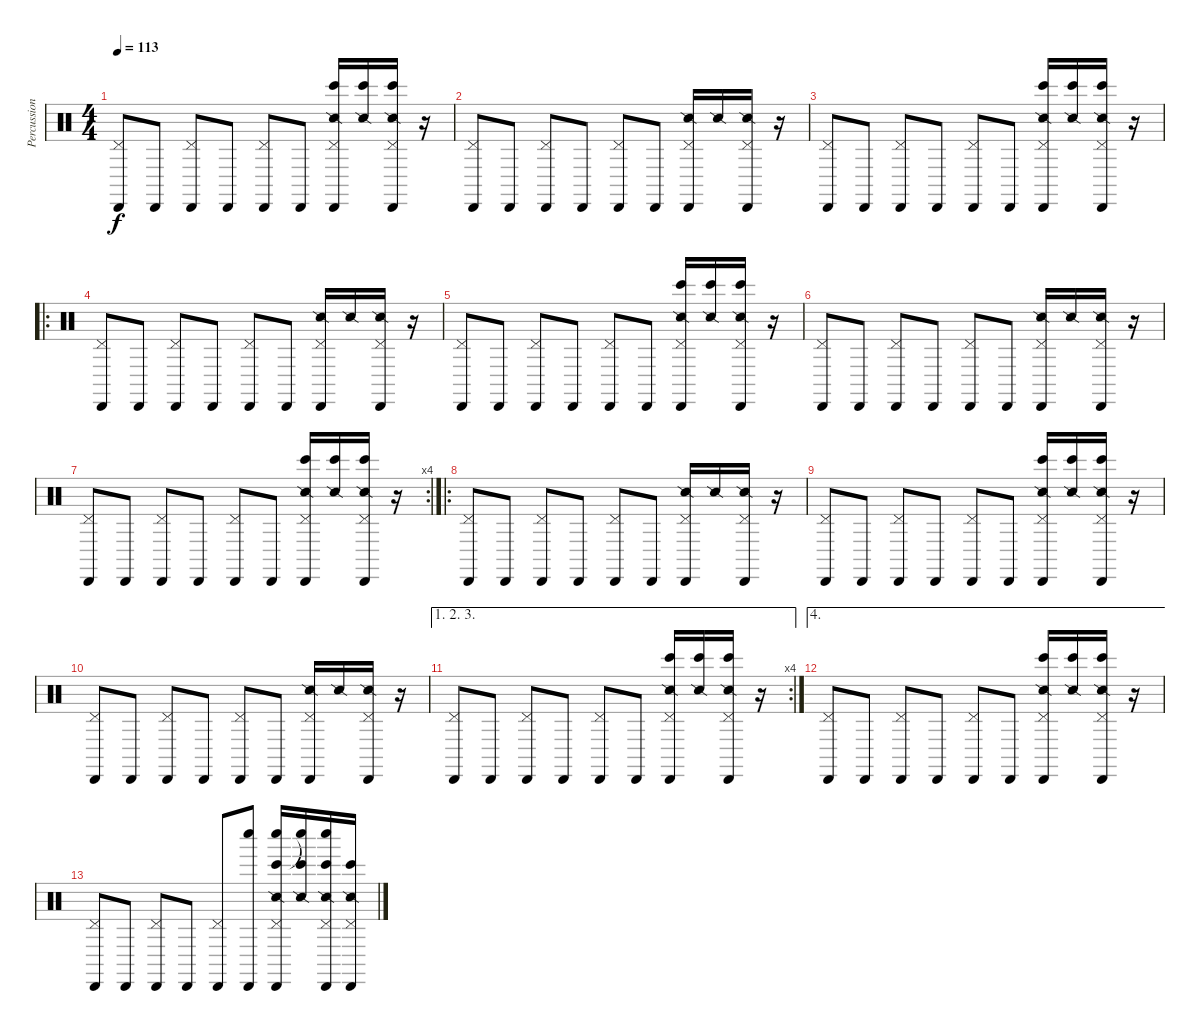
\track ("Percussion" "Percussion") {instrument percussion}
\staff {score}
\articulation defaults
\ts (4 4)
\tempo 113
\clef neutral
\ks c
("Cabasa (hit)" "Pedal Hi-Hat (hit)").8{dy f} "Cabasa (hit)".8 ("Cabasa (hit)" "Pedal Hi-Hat (hit)").8 "Cabasa (hit)".8 ("Cabasa (hit)" "Pedal Hi-Hat (hit)").8 "Cabasa (hit)".8 ("Cabasa (hit)" "Snare (side stick) 2" "Bongo High (hit)" "Pedal Hi-Hat (hit)").16 ("Snare (side stick) 2" "Bongo High (hit)").16 ("Cabasa (hit)" "Snare (side stick) 2" "Bongo High (hit)" "Pedal Hi-Hat (hit)").16 r.16 |
("Cabasa (hit)" "Pedal Hi-Hat (hit)").8 "Cabasa (hit)".8 ("Cabasa (hit)" "Pedal Hi-Hat (hit)").8 "Cabasa (hit)".8 ("Cabasa (hit)" "Pedal Hi-Hat (hit)").8 "Cabasa (hit)".8 ("Cabasa (hit)" "Snare (side stick) 2" "Pedal Hi-Hat (hit)").16 "Snare (side stick) 2".16 ("Cabasa (hit)" "Snare (side stick) 2" "Pedal Hi-Hat (hit)").16 r.16 |
("Cabasa (hit)" "Pedal Hi-Hat (hit)").8 "Cabasa (hit)".8 ("Cabasa (hit)" "Pedal Hi-Hat (hit)").8 "Cabasa (hit)".8 ("Cabasa (hit)" "Pedal Hi-Hat (hit)").8 "Cabasa (hit)".8 ("Cabasa (hit)" "Snare (side stick) 2" "Bongo High (hit)" "Pedal Hi-Hat (hit)").16 ("Snare (side stick) 2" "Bongo High (hit)").16 ("Cabasa (hit)" "Snare (side stick) 2" "Bongo High (hit)" "Pedal Hi-Hat (hit)").16 r.16 |
\ro
("Cabasa (hit)" "Pedal Hi-Hat (hit)").8 "Cabasa (hit)".8 ("Cabasa (hit)" "Pedal Hi-Hat (hit)").8 "Cabasa (hit)".8 ("Cabasa (hit)" "Pedal Hi-Hat (hit)").8 "Cabasa (hit)".8 ("Cabasa (hit)" "Snare (side stick) 2" "Pedal Hi-Hat (hit)").16 "Snare (side stick) 2".16 ("Cabasa (hit)" "Snare (side stick) 2" "Pedal Hi-Hat (hit)").16 r.16 |
("Cabasa (hit)" "Pedal Hi-Hat (hit)").8 "Cabasa (hit)".8 ("Cabasa (hit)" "Pedal Hi-Hat (hit)").8 "Cabasa (hit)".8 ("Cabasa (hit)" "Pedal Hi-Hat (hit)").8 "Cabasa (hit)".8 ("Cabasa (hit)" "Snare (side stick) 2" "Bongo High (hit)" "Pedal Hi-Hat (hit)").16 ("Snare (side stick) 2" "Bongo High (hit)").16 ("Cabasa (hit)" "Snare (side stick) 2" "Bongo High (hit)" "Pedal Hi-Hat (hit)").16 r.16 |
("Cabasa (hit)" "Pedal Hi-Hat (hit)").8 "Cabasa (hit)".8 ("Cabasa (hit)" "Pedal Hi-Hat (hit)").8 "Cabasa (hit)".8 ("Cabasa (hit)" "Pedal Hi-Hat (hit)").8 "Cabasa (hit)".8 ("Cabasa (hit)" "Snare (side stick) 2" "Pedal Hi-Hat (hit)").16 "Snare (side stick) 2".16 ("Cabasa (hit)" "Snare (side stick) 2" "Pedal Hi-Hat (hit)").16 r.16 |
\rc 4
("Cabasa (hit)" "Pedal Hi-Hat (hit)").8 "Cabasa (hit)".8 ("Cabasa (hit)" "Pedal Hi-Hat (hit)").8 "Cabasa (hit)".8 ("Cabasa (hit)" "Pedal Hi-Hat (hit)").8 "Cabasa (hit)".8 ("Cabasa (hit)" "Snare (side stick) 2" "Bongo High (hit)" "Pedal Hi-Hat (hit)").16 ("Snare (side stick) 2" "Bongo High (hit)").16 ("Cabasa (hit)" "Snare (side stick) 2" "Bongo High (hit)" "Pedal Hi-Hat (hit)").16 r.16 |
\ro
("Cabasa (hit)" "Pedal Hi-Hat (hit)").8 "Cabasa (hit)".8 ("Cabasa (hit)" "Pedal Hi-Hat (hit)").8 "Cabasa (hit)".8 ("Cabasa (hit)" "Pedal Hi-Hat (hit)").8 "Cabasa (hit)".8 ("Cabasa (hit)" "Snare (side stick) 2" "Pedal Hi-Hat (hit)").16 "Snare (side stick) 2".16 ("Cabasa (hit)" "Snare (side stick) 2" "Pedal Hi-Hat (hit)").16 r.16 |
("Cabasa (hit)" "Pedal Hi-Hat (hit)").8 "Cabasa (hit)".8 ("Cabasa (hit)" "Pedal Hi-Hat (hit)").8 "Cabasa (hit)".8 ("Cabasa (hit)" "Pedal Hi-Hat (hit)").8 "Cabasa (hit)".8 ("Cabasa (hit)" "Snare (side stick) 2" "Bongo High (hit)" "Pedal Hi-Hat (hit)").16 ("Snare (side stick) 2" "Bongo High (hit)").16 ("Cabasa (hit)" "Snare (side stick) 2" "Bongo High (hit)" "Pedal Hi-Hat (hit)").16 r.16 |
("Cabasa (hit)" "Pedal Hi-Hat (hit)").8 "Cabasa (hit)".8 ("Cabasa (hit)" "Pedal Hi-Hat (hit)").8 "Cabasa (hit)".8 ("Cabasa (hit)" "Pedal Hi-Hat (hit)").8 "Cabasa (hit)".8 ("Cabasa (hit)" "Snare (side stick) 2" "Pedal Hi-Hat (hit)").16 "Snare (side stick) 2".16 ("Cabasa (hit)" "Snare (side stick) 2" "Pedal Hi-Hat (hit)").16 r.16 |
\ae (1 2 3)
\rc 4
("Cabasa (hit)" "Pedal Hi-Hat (hit)").8 "Cabasa (hit)".8 ("Cabasa (hit)" "Pedal Hi-Hat (hit)").8 "Cabasa (hit)".8 ("Cabasa (hit)" "Pedal Hi-Hat (hit)").8 "Cabasa (hit)".8 ("Cabasa (hit)" "Snare (side stick) 2" "Bongo High (hit)" "Pedal Hi-Hat (hit)").16 ("Snare (side stick) 2" "Bongo High (hit)").16 ("Cabasa (hit)" "Snare (side stick) 2" "Bongo High (hit)" "Pedal Hi-Hat (hit)").16 r.16 |
\ae 4
("Cabasa (hit)" "Pedal Hi-Hat (hit)").8 "Cabasa (hit)".8 ("Cabasa (hit)" "Pedal Hi-Hat (hit)").8 "Cabasa (hit)".8 ("Cabasa (hit)" "Pedal Hi-Hat (hit)").8 "Cabasa (hit)".8 ("Cabasa (hit)" "Snare (side stick) 2" "Bongo High (hit)" "Pedal Hi-Hat (hit)").16 ("Snare (side stick) 2" "Bongo High (hit)").16 ("Cabasa (hit)" "Snare (side stick) 2" "Bongo High (hit)" "Pedal Hi-Hat (hit)").16 r.16 |
("Cabasa (hit)" "Pedal Hi-Hat (hit)").8 "Cabasa (hit)".8 ("Cabasa (hit)" "Pedal Hi-Hat (hit)").8 "Cabasa (hit)".8 ("Cabasa (hit)" "Pedal Hi-Hat (hit)").8 ("Cabasa (hit)" "Whistle low (hit)").8 ("Cabasa (hit)" "Snare (side stick) 2" "Bongo High (hit)" "Pedal Hi-Hat (hit)" "Whistle low (hit)").16 ("Snare (side stick) 2" "Bongo High (hit)" "Whistle low (hit)"{t}).16 ("Cabasa (hit)" "Snare (side stick) 2" "Bongo High (hit)" "Pedal Hi-Hat (hit)" "Whistle low (hit)").16 ("Cabasa (hit)" "Snare (side stick) 2" "Bongo High (hit)" "Pedal Hi-Hat (hit)").16
